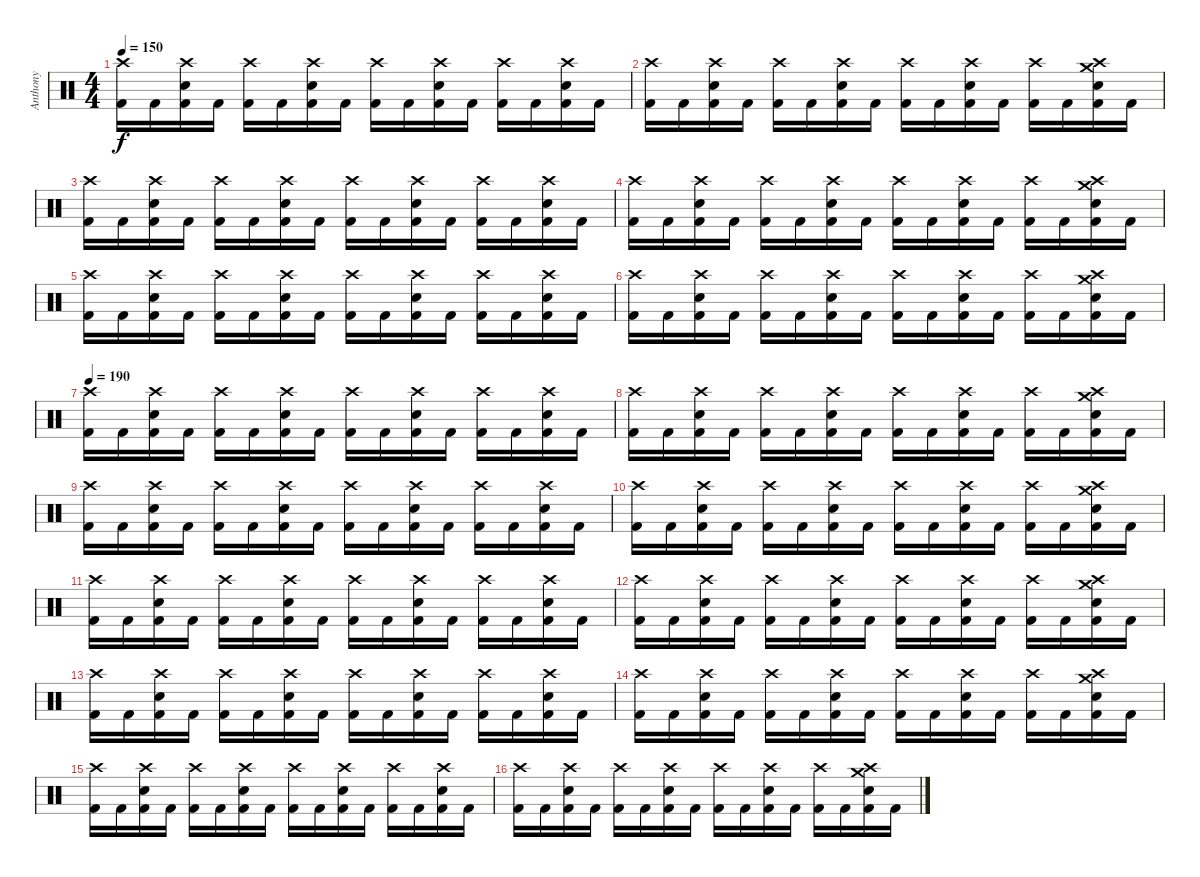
\track ("Anthony" "Anthony") {instrument percussion}
\staff {score}
\articulation defaults
\ts (4 4)
\tempo 150
\clef neutral
\ks c
("Crash high (hit)" "Kick (hit) 2").16{dy f} "Kick (hit) 2".16 ("Crash high (hit)" "Snare (hit) 2" "Kick (hit) 2").16 "Kick (hit) 2".16 ("Crash high (hit)" "Kick (hit) 2").16 "Kick (hit) 2".16 ("Crash high (hit)" "Snare (hit) 2" "Kick (hit) 2").16 "Kick (hit) 2".16 ("Crash high (hit)" "Kick (hit) 2").16 "Kick (hit) 2".16 ("Crash high (hit)" "Snare (hit) 2" "Kick (hit) 2").16 "Kick (hit) 2".16 ("Crash high (hit)" "Kick (hit) 2").16 "Kick (hit) 2".16 ("Crash high (hit)" "Snare (hit) 2" "Kick (hit) 2").16 "Kick (hit) 2".16 |
("Crash high (hit)" "Kick (hit) 2").16 "Kick (hit) 2".16 ("Crash high (hit)" "Snare (hit) 2" "Kick (hit) 2").16 "Kick (hit) 2".16 ("Crash high (hit)" "Kick (hit) 2").16 "Kick (hit) 2".16 ("Crash high (hit)" "Snare (hit) 2" "Kick (hit) 2").16 "Kick (hit) 2".16 ("Crash high (hit)" "Kick (hit) 2").16 "Kick (hit) 2".16 ("Crash high (hit)" "Snare (hit) 2" "Kick (hit) 2").16 "Kick (hit) 2".16 ("Crash high (hit)" "Kick (hit) 2").16 "Kick (hit) 2".16 ("Crash high (hit)" "Crash medium (hit)" "Snare (hit) 2" "Kick (hit) 2").16 "Kick (hit) 2".16 |
("Crash high (hit)" "Kick (hit) 2").16 "Kick (hit) 2".16 ("Crash high (hit)" "Snare (hit) 2" "Kick (hit) 2").16 "Kick (hit) 2".16 ("Crash high (hit)" "Kick (hit) 2").16 "Kick (hit) 2".16 ("Crash high (hit)" "Snare (hit) 2" "Kick (hit) 2").16 "Kick (hit) 2".16 ("Crash high (hit)" "Kick (hit) 2").16 "Kick (hit) 2".16 ("Crash high (hit)" "Snare (hit) 2" "Kick (hit) 2").16 "Kick (hit) 2".16 ("Crash high (hit)" "Kick (hit) 2").16 "Kick (hit) 2".16 ("Crash high (hit)" "Snare (hit) 2" "Kick (hit) 2").16 "Kick (hit) 2".16 |
("Crash high (hit)" "Kick (hit) 2").16 "Kick (hit) 2".16 ("Crash high (hit)" "Snare (hit) 2" "Kick (hit) 2").16 "Kick (hit) 2".16 ("Crash high (hit)" "Kick (hit) 2").16 "Kick (hit) 2".16 ("Crash high (hit)" "Snare (hit) 2" "Kick (hit) 2").16 "Kick (hit) 2".16 ("Crash high (hit)" "Kick (hit) 2").16 "Kick (hit) 2".16 ("Crash high (hit)" "Snare (hit) 2" "Kick (hit) 2").16 "Kick (hit) 2".16 ("Crash high (hit)" "Kick (hit) 2").16 "Kick (hit) 2".16 ("Crash high (hit)" "Crash medium (hit)" "Snare (hit) 2" "Kick (hit) 2").16 "Kick (hit) 2".16 |
("Crash high (hit)" "Kick (hit) 2").16 "Kick (hit) 2".16 ("Crash high (hit)" "Snare (hit) 2" "Kick (hit) 2").16 "Kick (hit) 2".16 ("Crash high (hit)" "Kick (hit) 2").16 "Kick (hit) 2".16 ("Crash high (hit)" "Snare (hit) 2" "Kick (hit) 2").16 "Kick (hit) 2".16 ("Crash high (hit)" "Kick (hit) 2").16 "Kick (hit) 2".16 ("Crash high (hit)" "Snare (hit) 2" "Kick (hit) 2").16 "Kick (hit) 2".16 ("Crash high (hit)" "Kick (hit) 2").16 "Kick (hit) 2".16 ("Crash high (hit)" "Snare (hit) 2" "Kick (hit) 2").16 "Kick (hit) 2".16 |
("Crash high (hit)" "Kick (hit) 2").16 "Kick (hit) 2".16 ("Crash high (hit)" "Snare (hit) 2" "Kick (hit) 2").16 "Kick (hit) 2".16 ("Crash high (hit)" "Kick (hit) 2").16 "Kick (hit) 2".16 ("Crash high (hit)" "Snare (hit) 2" "Kick (hit) 2").16 "Kick (hit) 2".16 ("Crash high (hit)" "Kick (hit) 2").16 "Kick (hit) 2".16 ("Crash high (hit)" "Snare (hit) 2" "Kick (hit) 2").16 "Kick (hit) 2".16 ("Crash high (hit)" "Kick (hit) 2").16 "Kick (hit) 2".16 ("Crash high (hit)" "Crash medium (hit)" "Snare (hit) 2" "Kick (hit) 2").16 "Kick (hit) 2".16 |
\tempo 190
("Crash high (hit)" "Kick (hit) 2").16 "Kick (hit) 2".16 ("Crash high (hit)" "Snare (hit) 2" "Kick (hit) 2").16 "Kick (hit) 2".16 ("Crash high (hit)" "Kick (hit) 2").16 "Kick (hit) 2".16 ("Crash high (hit)" "Snare (hit) 2" "Kick (hit) 2").16 "Kick (hit) 2".16 ("Crash high (hit)" "Kick (hit) 2").16 "Kick (hit) 2".16 ("Crash high (hit)" "Snare (hit) 2" "Kick (hit) 2").16 "Kick (hit) 2".16 ("Crash high (hit)" "Kick (hit) 2").16 "Kick (hit) 2".16 ("Crash high (hit)" "Snare (hit) 2" "Kick (hit) 2").16 "Kick (hit) 2".16 |
("Crash high (hit)" "Kick (hit) 2").16 "Kick (hit) 2".16 ("Crash high (hit)" "Snare (hit) 2" "Kick (hit) 2").16 "Kick (hit) 2".16 ("Crash high (hit)" "Kick (hit) 2").16 "Kick (hit) 2".16 ("Crash high (hit)" "Snare (hit) 2" "Kick (hit) 2").16 "Kick (hit) 2".16 ("Crash high (hit)" "Kick (hit) 2").16 "Kick (hit) 2".16 ("Crash high (hit)" "Snare (hit) 2" "Kick (hit) 2").16 "Kick (hit) 2".16 ("Crash high (hit)" "Kick (hit) 2").16 "Kick (hit) 2".16 ("Crash high (hit)" "Crash medium (hit)" "Snare (hit) 2" "Kick (hit) 2").16 "Kick (hit) 2".16 |
("Crash high (hit)" "Kick (hit) 2").16 "Kick (hit) 2".16 ("Crash high (hit)" "Snare (hit) 2" "Kick (hit) 2").16 "Kick (hit) 2".16 ("Crash high (hit)" "Kick (hit) 2").16 "Kick (hit) 2".16 ("Crash high (hit)" "Snare (hit) 2" "Kick (hit) 2").16 "Kick (hit) 2".16 ("Crash high (hit)" "Kick (hit) 2").16 "Kick (hit) 2".16 ("Crash high (hit)" "Snare (hit) 2" "Kick (hit) 2").16 "Kick (hit) 2".16 ("Crash high (hit)" "Kick (hit) 2").16 "Kick (hit) 2".16 ("Crash high (hit)" "Snare (hit) 2" "Kick (hit) 2").16 "Kick (hit) 2".16 |
("Crash high (hit)" "Kick (hit) 2").16 "Kick (hit) 2".16 ("Crash high (hit)" "Snare (hit) 2" "Kick (hit) 2").16 "Kick (hit) 2".16 ("Crash high (hit)" "Kick (hit) 2").16 "Kick (hit) 2".16 ("Crash high (hit)" "Snare (hit) 2" "Kick (hit) 2").16 "Kick (hit) 2".16 ("Crash high (hit)" "Kick (hit) 2").16 "Kick (hit) 2".16 ("Crash high (hit)" "Snare (hit) 2" "Kick (hit) 2").16 "Kick (hit) 2".16 ("Crash high (hit)" "Kick (hit) 2").16 "Kick (hit) 2".16 ("Crash high (hit)" "Crash medium (hit)" "Snare (hit) 2" "Kick (hit) 2").16 "Kick (hit) 2".16 |
("Crash high (hit)" "Kick (hit) 2").16 "Kick (hit) 2".16 ("Crash high (hit)" "Snare (hit) 2" "Kick (hit) 2").16 "Kick (hit) 2".16 ("Crash high (hit)" "Kick (hit) 2").16 "Kick (hit) 2".16 ("Crash high (hit)" "Snare (hit) 2" "Kick (hit) 2").16 "Kick (hit) 2".16 ("Crash high (hit)" "Kick (hit) 2").16 "Kick (hit) 2".16 ("Crash high (hit)" "Snare (hit) 2" "Kick (hit) 2").16 "Kick (hit) 2".16 ("Crash high (hit)" "Kick (hit) 2").16 "Kick (hit) 2".16 ("Crash high (hit)" "Snare (hit) 2" "Kick (hit) 2").16 "Kick (hit) 2".16 |
("Crash high (hit)" "Kick (hit) 2").16 "Kick (hit) 2".16 ("Crash high (hit)" "Snare (hit) 2" "Kick (hit) 2").16 "Kick (hit) 2".16 ("Crash high (hit)" "Kick (hit) 2").16 "Kick (hit) 2".16 ("Crash high (hit)" "Snare (hit) 2" "Kick (hit) 2").16 "Kick (hit) 2".16 ("Crash high (hit)" "Kick (hit) 2").16 "Kick (hit) 2".16 ("Crash high (hit)" "Snare (hit) 2" "Kick (hit) 2").16 "Kick (hit) 2".16 ("Crash high (hit)" "Kick (hit) 2").16 "Kick (hit) 2".16 ("Crash high (hit)" "Crash medium (hit)" "Snare (hit) 2" "Kick (hit) 2").16 "Kick (hit) 2".16 |
("Crash high (hit)" "Kick (hit) 2").16 "Kick (hit) 2".16 ("Crash high (hit)" "Snare (hit) 2" "Kick (hit) 2").16 "Kick (hit) 2".16 ("Crash high (hit)" "Kick (hit) 2").16 "Kick (hit) 2".16 ("Crash high (hit)" "Snare (hit) 2" "Kick (hit) 2").16 "Kick (hit) 2".16 ("Crash high (hit)" "Kick (hit) 2").16 "Kick (hit) 2".16 ("Crash high (hit)" "Snare (hit) 2" "Kick (hit) 2").16 "Kick (hit) 2".16 ("Crash high (hit)" "Kick (hit) 2").16 "Kick (hit) 2".16 ("Crash high (hit)" "Snare (hit) 2" "Kick (hit) 2").16 "Kick (hit) 2".16 |
("Crash high (hit)" "Kick (hit) 2").16 "Kick (hit) 2".16 ("Crash high (hit)" "Snare (hit) 2" "Kick (hit) 2").16 "Kick (hit) 2".16 ("Crash high (hit)" "Kick (hit) 2").16 "Kick (hit) 2".16 ("Crash high (hit)" "Snare (hit) 2" "Kick (hit) 2").16 "Kick (hit) 2".16 ("Crash high (hit)" "Kick (hit) 2").16 "Kick (hit) 2".16 ("Crash high (hit)" "Snare (hit) 2" "Kick (hit) 2").16 "Kick (hit) 2".16 ("Crash high (hit)" "Kick (hit) 2").16 "Kick (hit) 2".16 ("Crash high (hit)" "Crash medium (hit)" "Snare (hit) 2" "Kick (hit) 2").16 "Kick (hit) 2".16 |
("Crash high (hit)" "Kick (hit) 2").16 "Kick (hit) 2".16 ("Crash high (hit)" "Snare (hit) 2" "Kick (hit) 2").16 "Kick (hit) 2".16 ("Crash high (hit)" "Kick (hit) 2").16 "Kick (hit) 2".16 ("Crash high (hit)" "Snare (hit) 2" "Kick (hit) 2").16 "Kick (hit) 2".16 ("Crash high (hit)" "Kick (hit) 2").16 "Kick (hit) 2".16 ("Crash high (hit)" "Snare (hit) 2" "Kick (hit) 2").16 "Kick (hit) 2".16 ("Crash high (hit)" "Kick (hit) 2").16 "Kick (hit) 2".16 ("Crash high (hit)" "Snare (hit) 2" "Kick (hit) 2").16 "Kick (hit) 2".16 |
("Crash high (hit)" "Kick (hit) 2").16 "Kick (hit) 2".16 ("Crash high (hit)" "Snare (hit) 2" "Kick (hit) 2").16 "Kick (hit) 2".16 ("Crash high (hit)" "Kick (hit) 2").16 "Kick (hit) 2".16 ("Crash high (hit)" "Snare (hit) 2" "Kick (hit) 2").16 "Kick (hit) 2".16 ("Crash high (hit)" "Kick (hit) 2").16 "Kick (hit) 2".16 ("Crash high (hit)" "Snare (hit) 2" "Kick (hit) 2").16 "Kick (hit) 2".16 ("Crash high (hit)" "Kick (hit) 2").16 "Kick (hit) 2".16 ("Crash high (hit)" "Crash medium (hit)" "Snare (hit) 2" "Kick (hit) 2").16 "Kick (hit) 2".16
